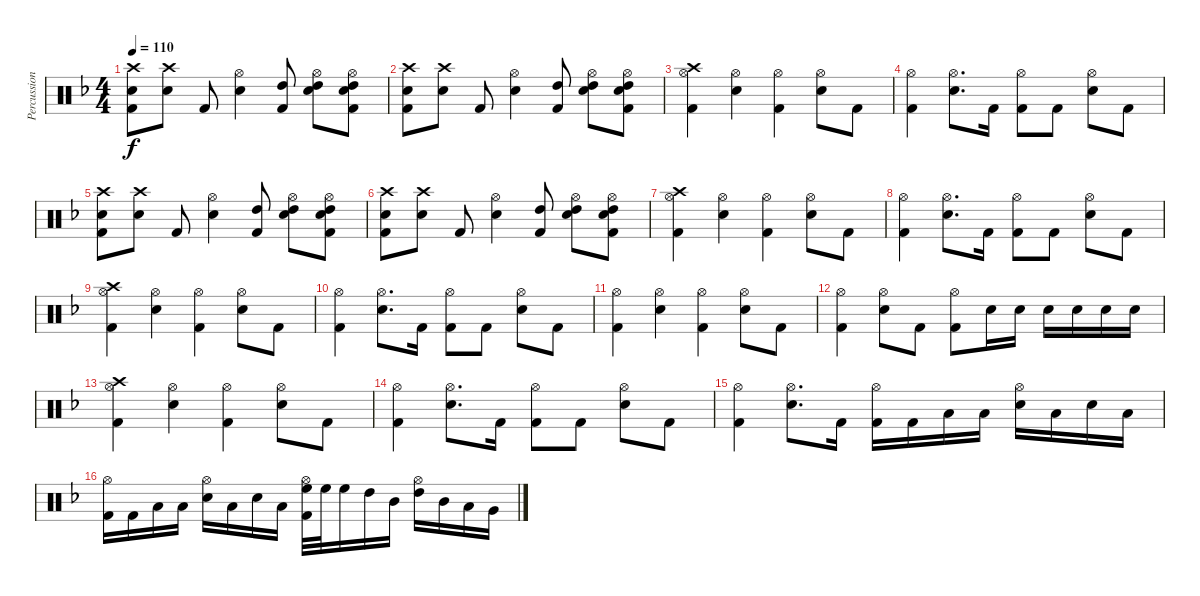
\track ("Percussion" "Percussion") {instrument percussion}
\staff {score}
\articulation defaults
\ts (4 4)
\tempo 110
\clef neutral
\ks dminor
("Crash high (hit)" "Electric Snare (hit)" "Kick (hit) 2").8{dy f} ("Crash high (hit)" "Electric Snare (hit)").8 "Kick (hit) 2".8 ("Hi-Hat (open)" "Electric Snare (hit)").4 ("High Tom (hit)" "Kick (hit) 2").8 ("Hi-Hat (open)" "Electric Snare (hit)" "High Tom (hit)").8 ("Hi-Hat (open)" "Electric Snare (hit)" "High Tom (hit)" "Kick (hit) 2").8 |
("Crash high (hit)" "Electric Snare (hit)" "Kick (hit) 2").8 ("Crash high (hit)" "Electric Snare (hit)").8 "Kick (hit) 2".8 ("Hi-Hat (open)" "Electric Snare (hit)").4 ("High Tom (hit)" "Kick (hit) 2").8 ("Hi-Hat (open)" "Electric Snare (hit)" "High Tom (hit)").8 ("Hi-Hat (open)" "Electric Snare (hit)" "High Tom (hit)" "Kick (hit) 2").8 |
("Crash high (hit)" "Hi-Hat (open)" "Kick (hit) 2").4 ("Hi-Hat (open)" "Electric Snare (hit)").4 ("Hi-Hat (open)" "Kick (hit) 2").4 ("Hi-Hat (open)" "Electric Snare (hit)").8 "Kick (hit) 2".8 |
("Hi-Hat (open)" "Kick (hit) 2").4 ("Hi-Hat (open)" "Electric Snare (hit)").8{d} "Kick (hit) 2".16 ("Hi-Hat (open)" "Kick (hit) 2").8 "Kick (hit) 2".8 ("Hi-Hat (open)" "Electric Snare (hit)").8 "Kick (hit) 2".8 |
("Crash high (hit)" "Electric Snare (hit)" "Kick (hit) 2").8 ("Crash high (hit)" "Electric Snare (hit)").8 "Kick (hit) 2".8 ("Hi-Hat (open)" "Electric Snare (hit)").4 ("High Tom (hit)" "Kick (hit) 2").8 ("Hi-Hat (open)" "Electric Snare (hit)" "High Tom (hit)").8 ("Hi-Hat (open)" "Electric Snare (hit)" "High Tom (hit)" "Kick (hit) 2").8 |
("Crash high (hit)" "Electric Snare (hit)" "Kick (hit) 2").8 ("Crash high (hit)" "Electric Snare (hit)").8 "Kick (hit) 2".8 ("Hi-Hat (open)" "Electric Snare (hit)").4 ("High Tom (hit)" "Kick (hit) 2").8 ("Hi-Hat (open)" "Electric Snare (hit)" "High Tom (hit)").8 ("Hi-Hat (open)" "Electric Snare (hit)" "High Tom (hit)" "Kick (hit) 2").8 |
("Crash high (hit)" "Hi-Hat (open)" "Kick (hit) 2").4 ("Hi-Hat (open)" "Electric Snare (hit)").4 ("Hi-Hat (open)" "Kick (hit) 2").4 ("Hi-Hat (open)" "Electric Snare (hit)").8 "Kick (hit) 2".8 |
("Hi-Hat (open)" "Kick (hit) 2").4 ("Hi-Hat (open)" "Electric Snare (hit)").8{d} "Kick (hit) 2".16 ("Hi-Hat (open)" "Kick (hit) 2").8 "Kick (hit) 2".8 ("Hi-Hat (open)" "Electric Snare (hit)").8 "Kick (hit) 2".8 |
("Crash high (hit)" "Hi-Hat (open)" "Kick (hit) 2").4 ("Hi-Hat (open)" "Electric Snare (hit)").4 ("Hi-Hat (open)" "Kick (hit) 2").4 ("Hi-Hat (open)" "Electric Snare (hit)").8 "Kick (hit) 2".8 |
("Hi-Hat (open)" "Kick (hit) 2").4 ("Hi-Hat (open)" "Electric Snare (hit)").8{d} "Kick (hit) 2".16 ("Hi-Hat (open)" "Kick (hit) 2").8 "Kick (hit) 2".8 ("Hi-Hat (open)" "Electric Snare (hit)").8 "Kick (hit) 2".8 |
("Hi-Hat (open)" "Kick (hit) 2").4 ("Hi-Hat (open)" "Electric Snare (hit)").4 ("Hi-Hat (open)" "Kick (hit) 2").4 ("Hi-Hat (open)" "Electric Snare (hit)").8 "Kick (hit) 2".8 |
("Hi-Hat (open)" "Kick (hit) 2").4 ("Hi-Hat (open)" "Electric Snare (hit)").8 "Kick (hit) 2".8 ("Hi-Hat (open)" "Kick (hit) 2").8 "Electric Snare (hit)".16 "Electric Snare (hit)".16 "Electric Snare (hit)".16 "Electric Snare (hit)".16 "Electric Snare (hit)".16 "Electric Snare (hit)".16 |
("Crash high (hit)" "Hi-Hat (open)" "Kick (hit) 2").4 ("Hi-Hat (open)" "Electric Snare (hit)").4 ("Hi-Hat (open)" "Kick (hit) 2").4 ("Hi-Hat (open)" "Electric Snare (hit)").8 "Kick (hit) 2".8 |
("Hi-Hat (open)" "Kick (hit) 2").4 ("Hi-Hat (open)" "Electric Snare (hit)").8{d} "Kick (hit) 2".16 ("Hi-Hat (open)" "Kick (hit) 2").8 "Kick (hit) 2".8 ("Hi-Hat (open)" "Electric Snare (hit)").8 "Kick (hit) 2".8 |
("Hi-Hat (open)" "Kick (hit) 2").4 ("Hi-Hat (open)" "Electric Snare (hit)").8{d} "Kick (hit) 2".16 ("Hi-Hat (open)" "Kick (hit) 2").16 "Kick (hit) 2".16 "Low Tom (hit)".16 "Low Tom (hit)".16 ("Hi-Hat (open)" "Electric Snare (hit)").16 "Low Tom (hit)".16 "Electric Snare (hit)".16 "Low Tom (hit)".16 |
("Hi-Hat (open)" "Kick (hit) 2").16 "Kick (hit) 2".16 "Low Tom (hit)".16 "Low Tom (hit)".16 ("Hi-Hat (open)" "Electric Snare (hit)").16 "Low Tom (hit)".16 "Electric Snare (hit)".16 "Low Tom (hit)".16 ("Hi-Hat (open)" "High Floor Tom (hit)" "Kick (hit) 2").32 "High Floor Tom (hit)".32 "High Floor Tom (hit)".16 "High Tom (hit)".16 "Mid Tom (hit)".16 ("Hi-Hat (open)" "High Tom (hit)").16 "Mid Tom (hit)".16 "Low Tom (hit)".16 "Very Low Tom (hit)".16
